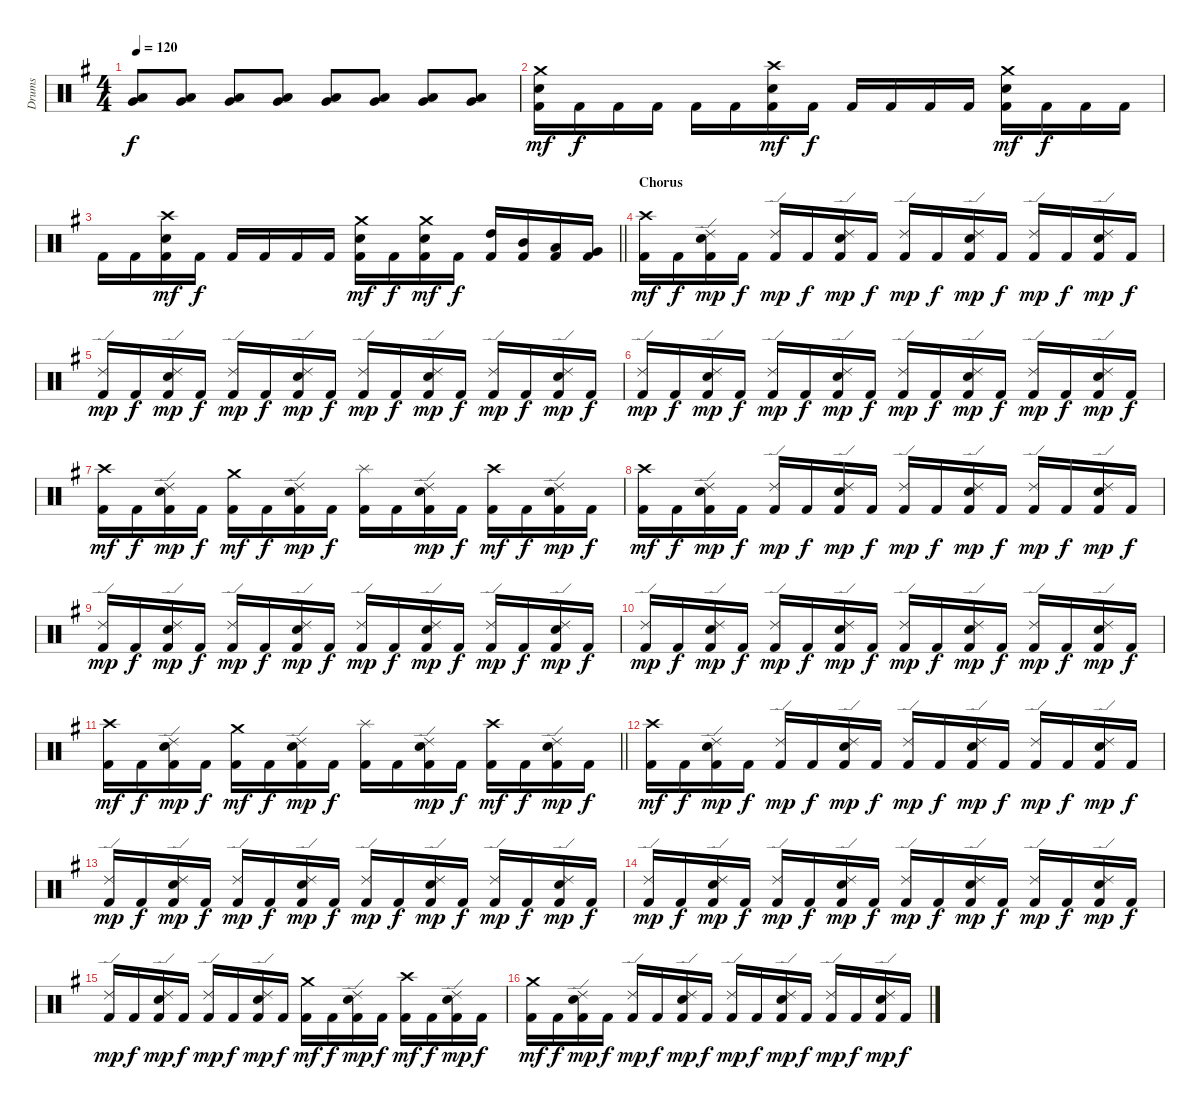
\track ("Drums" "Drums") {instrument percussion}
\staff {score}
\articulation defaults
\ts (4 4)
\tempo 120
\clef neutral
\ks eminor
("Very Low Tom (hit)" "Low Floor Tom (hit)").8{dy f} ("Very Low Tom (hit)" "Low Floor Tom (hit)").8 ("Very Low Tom (hit)" "Low Floor Tom (hit)").8 ("Very Low Tom (hit)" "Low Floor Tom (hit)").8 ("Very Low Tom (hit)" "Low Floor Tom (hit)").8 ("Very Low Tom (hit)" "Low Floor Tom (hit)").8 ("Very Low Tom (hit)" "Low Floor Tom (hit)").8 ("Very Low Tom (hit)" "Low Floor Tom (hit)").8 |
("Crash medium (hit)" "Electric Snare (hit)" "Kick (hit) 2").16{dy mf} "Kick (hit) 2".16{dy f} "Kick (hit) 2".16 "Kick (hit) 2".16 "Kick (hit) 2".16 "Kick (hit) 2".16 ("Crash high (hit)" "Electric Snare (hit)" "Kick (hit) 2").16{dy mf} "Kick (hit) 2".16{dy f} "Kick (hit) 2".16 "Kick (hit) 2".16 "Kick (hit) 2".16 "Kick (hit) 2".16 ("Crash medium (hit)" "Electric Snare (hit)" "Kick (hit) 2").16{dy mf} "Kick (hit) 2".16{dy f} "Kick (hit) 2".16 "Kick (hit) 2".16 |
\barLineRight lightlight "Kick (hit) 2".16 "Kick (hit) 2".16
("Crash high (hit)" "Electric Snare (hit)" "Kick (hit) 2").16{dy mf} "Kick (hit) 2".16{dy f} "Kick (hit) 2".16 "Kick (hit) 2".16 "Kick (hit) 2".16 "Kick (hit) 2".16 ("Crash medium (hit)" "Electric Snare (hit)" "Kick (hit) 2").16{dy mf} "Kick (hit) 2".16{dy f} ("Crash medium (hit)" "Electric Snare (hit)" "Kick (hit) 2").16{dy mf} "Kick (hit) 2".16{dy f} ("High Tom (hit)" "Kick (hit) 2").16 ("Mid Tom (hit)" "Kick (hit) 2").16 ("Low Tom (hit)" "Kick (hit) 2").16 ("Very Low Tom (hit)" "Kick (hit) 2").16 |
\section ("" "Chorus")
("Crash high (hit)" "Kick (hit) 2").16{dy mf} "Kick (hit) 2".16{dy f} ("Ride (edge) 2" "Electric Snare (hit)" "Kick (hit) 2").16{dy mp} "Kick (hit) 2".16{dy f} ("Ride (edge) 2" "Kick (hit) 2").16{dy mp} "Kick (hit) 2".16{dy f} ("Ride (edge) 2" "Electric Snare (hit)" "Kick (hit) 2").16{dy mp} "Kick (hit) 2".16{dy f} ("Ride (edge) 2" "Kick (hit) 2").16{dy mp} "Kick (hit) 2".16{dy f} ("Ride (edge) 2" "Electric Snare (hit)" "Kick (hit) 2").16{dy mp} "Kick (hit) 2".16{dy f} ("Ride (edge) 2" "Kick (hit) 2").16{dy mp} "Kick (hit) 2".16{dy f} ("Ride (edge) 2" "Electric Snare (hit)" "Kick (hit) 2").16{dy mp} "Kick (hit) 2".16{dy f} |
("Ride (edge) 2" "Kick (hit) 2").16{dy mp} "Kick (hit) 2".16{dy f} ("Ride (edge) 2" "Electric Snare (hit)" "Kick (hit) 2").16{dy mp} "Kick (hit) 2".16{dy f} ("Ride (edge) 2" "Kick (hit) 2").16{dy mp} "Kick (hit) 2".16{dy f} ("Ride (edge) 2" "Electric Snare (hit)" "Kick (hit) 2").16{dy mp} "Kick (hit) 2".16{dy f} ("Ride (edge) 2" "Kick (hit) 2").16{dy mp} "Kick (hit) 2".16{dy f} ("Ride (edge) 2" "Electric Snare (hit)" "Kick (hit) 2").16{dy mp} "Kick (hit) 2".16{dy f} ("Ride (edge) 2" "Kick (hit) 2").16{dy mp} "Kick (hit) 2".16{dy f} ("Ride (edge) 2" "Electric Snare (hit)" "Kick (hit) 2").16{dy mp} "Kick (hit) 2".16{dy f} |
("Ride (edge) 2" "Kick (hit) 2").16{dy mp} "Kick (hit) 2".16{dy f} ("Ride (edge) 2" "Electric Snare (hit)" "Kick (hit) 2").16{dy mp} "Kick (hit) 2".16{dy f} ("Ride (edge) 2" "Kick (hit) 2").16{dy mp} "Kick (hit) 2".16{dy f} ("Ride (edge) 2" "Electric Snare (hit)" "Kick (hit) 2").16{dy mp} "Kick (hit) 2".16{dy f} ("Ride (edge) 2" "Kick (hit) 2").16{dy mp} "Kick (hit) 2".16{dy f} ("Ride (edge) 2" "Electric Snare (hit)" "Kick (hit) 2").16{dy mp} "Kick (hit) 2".16{dy f} ("Ride (edge) 2" "Kick (hit) 2").16{dy mp} "Kick (hit) 2".16{dy f} ("Ride (edge) 2" "Electric Snare (hit)" "Kick (hit) 2").16{dy mp} "Kick (hit) 2".16{dy f} |
("Crash high (hit)" "Kick (hit) 2").16{dy mf} "Kick (hit) 2".16{dy f} ("Ride (edge) 2" "Electric Snare (hit)" "Kick (hit) 2").16{dy mp} "Kick (hit) 2".16{dy f} ("Crash medium (hit)" "Kick (hit) 2").16{dy mf} "Kick (hit) 2".16{dy f} ("Ride (edge) 2" "Electric Snare (hit)" "Kick (hit) 2").16{dy mp} "Kick (hit) 2".16{dy f} ("Splash (hit)" "Kick (hit) 2").16 "Kick (hit) 2".16 ("Ride (edge) 2" "Electric Snare (hit)" "Kick (hit) 2").16{dy mp} "Kick (hit) 2".16{dy f} ("Crash high (hit)" "Kick (hit) 2").16{dy mf} "Kick (hit) 2".16{dy f} ("Ride (edge) 2" "Electric Snare (hit)" "Kick (hit) 2").16{dy mp} "Kick (hit) 2".16{dy f} |
("Crash high (hit)" "Kick (hit) 2").16{dy mf} "Kick (hit) 2".16{dy f} ("Ride (edge) 2" "Electric Snare (hit)" "Kick (hit) 2").16{dy mp} "Kick (hit) 2".16{dy f} ("Ride (edge) 2" "Kick (hit) 2").16{dy mp} "Kick (hit) 2".16{dy f} ("Ride (edge) 2" "Electric Snare (hit)" "Kick (hit) 2").16{dy mp} "Kick (hit) 2".16{dy f} ("Ride (edge) 2" "Kick (hit) 2").16{dy mp} "Kick (hit) 2".16{dy f} ("Ride (edge) 2" "Electric Snare (hit)" "Kick (hit) 2").16{dy mp} "Kick (hit) 2".16{dy f} ("Ride (edge) 2" "Kick (hit) 2").16{dy mp} "Kick (hit) 2".16{dy f} ("Ride (edge) 2" "Electric Snare (hit)" "Kick (hit) 2").16{dy mp} "Kick (hit) 2".16{dy f} |
("Ride (edge) 2" "Kick (hit) 2").16{dy mp} "Kick (hit) 2".16{dy f} ("Ride (edge) 2" "Electric Snare (hit)" "Kick (hit) 2").16{dy mp} "Kick (hit) 2".16{dy f} ("Ride (edge) 2" "Kick (hit) 2").16{dy mp} "Kick (hit) 2".16{dy f} ("Ride (edge) 2" "Electric Snare (hit)" "Kick (hit) 2").16{dy mp} "Kick (hit) 2".16{dy f} ("Ride (edge) 2" "Kick (hit) 2").16{dy mp} "Kick (hit) 2".16{dy f} ("Ride (edge) 2" "Electric Snare (hit)" "Kick (hit) 2").16{dy mp} "Kick (hit) 2".16{dy f} ("Ride (edge) 2" "Kick (hit) 2").16{dy mp} "Kick (hit) 2".16{dy f} ("Ride (edge) 2" "Electric Snare (hit)" "Kick (hit) 2").16{dy mp} "Kick (hit) 2".16{dy f} |
("Ride (edge) 2" "Kick (hit) 2").16{dy mp} "Kick (hit) 2".16{dy f} ("Ride (edge) 2" "Electric Snare (hit)" "Kick (hit) 2").16{dy mp} "Kick (hit) 2".16{dy f} ("Ride (edge) 2" "Kick (hit) 2").16{dy mp} "Kick (hit) 2".16{dy f} ("Ride (edge) 2" "Electric Snare (hit)" "Kick (hit) 2").16{dy mp} "Kick (hit) 2".16{dy f} ("Ride (edge) 2" "Kick (hit) 2").16{dy mp} "Kick (hit) 2".16{dy f} ("Ride (edge) 2" "Electric Snare (hit)" "Kick (hit) 2").16{dy mp} "Kick (hit) 2".16{dy f} ("Ride (edge) 2" "Kick (hit) 2").16{dy mp} "Kick (hit) 2".16{dy f} ("Ride (edge) 2" "Electric Snare (hit)" "Kick (hit) 2").16{dy mp} "Kick (hit) 2".16{dy f} |
\barLineRight lightlight
("Crash high (hit)" "Kick (hit) 2").16{dy mf} "Kick (hit) 2".16{dy f} ("Ride (edge) 2" "Electric Snare (hit)" "Kick (hit) 2").16{dy mp} "Kick (hit) 2".16{dy f} ("Crash medium (hit)" "Kick (hit) 2").16{dy mf} "Kick (hit) 2".16{dy f} ("Ride (edge) 2" "Electric Snare (hit)" "Kick (hit) 2").16{dy mp} "Kick (hit) 2".16{dy f} ("Splash (hit)" "Kick (hit) 2").16 "Kick (hit) 2".16 ("Ride (edge) 2" "Electric Snare (hit)" "Kick (hit) 2").16{dy mp} "Kick (hit) 2".16{dy f} ("Crash high (hit)" "Kick (hit) 2").16{dy mf} "Kick (hit) 2".16{dy f} ("Ride (edge) 2" "Electric Snare (hit)" "Kick (hit) 2").16{dy mp} "Kick (hit) 2".16{dy f} |
\section ("" "")
("Crash high (hit)" "Kick (hit) 2").16{dy mf} "Kick (hit) 2".16{dy f} ("Ride (edge) 2" "Electric Snare (hit)" "Kick (hit) 2").16{dy mp} "Kick (hit) 2".16{dy f} ("Ride (edge) 2" "Kick (hit) 2").16{dy mp} "Kick (hit) 2".16{dy f} ("Ride (edge) 2" "Electric Snare (hit)" "Kick (hit) 2").16{dy mp} "Kick (hit) 2".16{dy f} ("Ride (edge) 2" "Kick (hit) 2").16{dy mp} "Kick (hit) 2".16{dy f} ("Ride (edge) 2" "Electric Snare (hit)" "Kick (hit) 2").16{dy mp} "Kick (hit) 2".16{dy f} ("Ride (edge) 2" "Kick (hit) 2").16{dy mp} "Kick (hit) 2".16{dy f} ("Ride (edge) 2" "Electric Snare (hit)" "Kick (hit) 2").16{dy mp} "Kick (hit) 2".16{dy f} |
("Ride (edge) 2" "Kick (hit) 2").16{dy mp} "Kick (hit) 2".16{dy f} ("Ride (edge) 2" "Electric Snare (hit)" "Kick (hit) 2").16{dy mp} "Kick (hit) 2".16{dy f} ("Ride (edge) 2" "Kick (hit) 2").16{dy mp} "Kick (hit) 2".16{dy f} ("Ride (edge) 2" "Electric Snare (hit)" "Kick (hit) 2").16{dy mp} "Kick (hit) 2".16{dy f} ("Ride (edge) 2" "Kick (hit) 2").16{dy mp} "Kick (hit) 2".16{dy f} ("Ride (edge) 2" "Electric Snare (hit)" "Kick (hit) 2").16{dy mp} "Kick (hit) 2".16{dy f} ("Ride (edge) 2" "Kick (hit) 2").16{dy mp} "Kick (hit) 2".16{dy f} ("Ride (edge) 2" "Electric Snare (hit)" "Kick (hit) 2").16{dy mp} "Kick (hit) 2".16{dy f} |
("Ride (edge) 2" "Kick (hit) 2").16{dy mp} "Kick (hit) 2".16{dy f} ("Ride (edge) 2" "Electric Snare (hit)" "Kick (hit) 2").16{dy mp} "Kick (hit) 2".16{dy f} ("Ride (edge) 2" "Kick (hit) 2").16{dy mp} "Kick (hit) 2".16{dy f} ("Ride (edge) 2" "Electric Snare (hit)" "Kick (hit) 2").16{dy mp} "Kick (hit) 2".16{dy f} ("Ride (edge) 2" "Kick (hit) 2").16{dy mp} "Kick (hit) 2".16{dy f} ("Ride (edge) 2" "Electric Snare (hit)" "Kick (hit) 2").16{dy mp} "Kick (hit) 2".16{dy f} ("Ride (edge) 2" "Kick (hit) 2").16{dy mp} "Kick (hit) 2".16{dy f} ("Ride (edge) 2" "Electric Snare (hit)" "Kick (hit) 2").16{dy mp} "Kick (hit) 2".16{dy f} |
("Ride (edge) 2" "Kick (hit) 2").16{dy mp} "Kick (hit) 2".16{dy f} ("Ride (edge) 2" "Electric Snare (hit)" "Kick (hit) 2").16{dy mp} "Kick (hit) 2".16{dy f} ("Ride (edge) 2" "Kick (hit) 2").16{dy mp} "Kick (hit) 2".16{dy f} ("Ride (edge) 2" "Electric Snare (hit)" "Kick (hit) 2").16{dy mp} "Kick (hit) 2".16{dy f} ("Crash medium (hit)" "Kick (hit) 2").16{dy mf} "Kick (hit) 2".16{dy f} ("Ride (edge) 2" "Electric Snare (hit)" "Kick (hit) 2").16{dy mp} "Kick (hit) 2".16{dy f} ("Crash high (hit)" "Kick (hit) 2").16{dy mf} "Kick (hit) 2".16{dy f} ("Ride (edge) 2" "Electric Snare (hit)" "Kick (hit) 2").16{dy mp} "Kick (hit) 2".16{dy f} |
("Crash medium (hit)" "Kick (hit) 2").16{dy mf} "Kick (hit) 2".16{dy f} ("Ride (edge) 2" "Electric Snare (hit)" "Kick (hit) 2").16{dy mp} "Kick (hit) 2".16{dy f} ("Ride (edge) 2" "Kick (hit) 2").16{dy mp} "Kick (hit) 2".16{dy f} ("Ride (edge) 2" "Electric Snare (hit)" "Kick (hit) 2").16{dy mp} "Kick (hit) 2".16{dy f} ("Ride (edge) 2" "Kick (hit) 2").16{dy mp} "Kick (hit) 2".16{dy f} ("Ride (edge) 2" "Electric Snare (hit)" "Kick (hit) 2").16{dy mp} "Kick (hit) 2".16{dy f} ("Ride (edge) 2" "Kick (hit) 2").16{dy mp} "Kick (hit) 2".16{dy f} ("Ride (edge) 2" "Electric Snare (hit)" "Kick (hit) 2").16{dy mp} "Kick (hit) 2".16{dy f}
